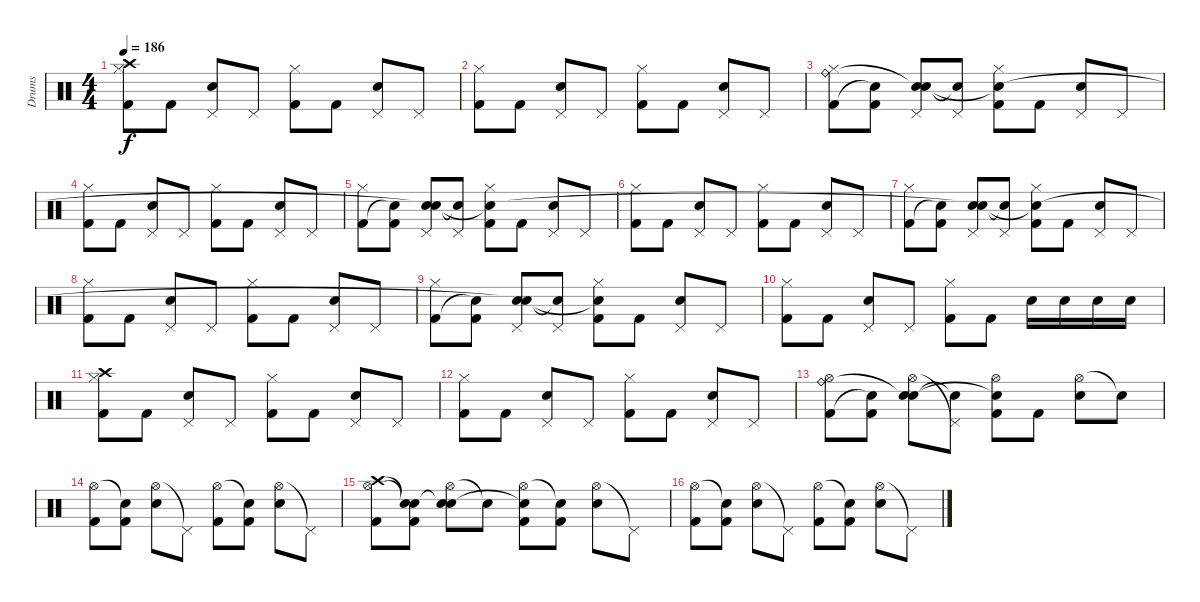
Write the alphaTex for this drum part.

\track ("Drums" "Drums") {instrument percussion}
\staff {score}
\articulation defaults
\ts (4 4)
\tempo 186
\clef neutral
\ks c
("Hi-Hat (closed)" "Kick (hit) 2" "Crash high (hit)").8{dy f} "Kick (hit) 2".8 ("Pedal Hi-Hat (hit)" "Electric Snare (hit)").8 "Pedal Hi-Hat (hit)".8 ("Hi-Hat (closed)" "Kick (hit) 2").8 "Kick (hit) 2".8 ("Pedal Hi-Hat (hit)" "Electric Snare (hit)").8 "Pedal Hi-Hat (hit)".8 |
("Hi-Hat (closed)" "Kick (hit) 2").8 "Kick (hit) 2".8 ("Pedal Hi-Hat (hit)" "Electric Snare (hit)").8 "Pedal Hi-Hat (hit)".8 ("Hi-Hat (closed)" "Kick (hit) 2").8 "Kick (hit) 2".8 ("Pedal Hi-Hat (hit)" "Electric Snare (hit)").8 "Pedal Hi-Hat (hit)".8 |
("Hi-Hat (closed)" "Kick (hit) 2" "Ride (bell)").8 ("Kick (hit) 2" "Snare (hit)"{t}).8 ("Pedal Hi-Hat (hit)" "Electric Snare (hit)" "Snare (hit)"{t}).8 ("Pedal Hi-Hat (hit)" "Snare (hit)"{t}).8 ("Hi-Hat (closed)" "Kick (hit) 2" "Snare (hit)"{t}).8 "Kick (hit) 2".8 ("Pedal Hi-Hat (hit)" "Electric Snare (hit)").8 "Pedal Hi-Hat (hit)".8 |
("Hi-Hat (closed)" "Kick (hit) 2").8 "Kick (hit) 2".8 ("Pedal Hi-Hat (hit)" "Electric Snare (hit)").8 "Pedal Hi-Hat (hit)".8 ("Hi-Hat (closed)" "Kick (hit) 2").8 "Kick (hit) 2".8 ("Pedal Hi-Hat (hit)" "Electric Snare (hit)").8 "Pedal Hi-Hat (hit)".8 |
("Hi-Hat (closed)" "Kick (hit) 2").8 ("Kick (hit) 2" "Snare (hit)"{t}).8 ("Pedal Hi-Hat (hit)" "Electric Snare (hit)" "Snare (hit)"{t}).8 ("Pedal Hi-Hat (hit)" "Snare (hit)"{t}).8 ("Hi-Hat (closed)" "Kick (hit) 2" "Snare (hit)"{t}).8 "Kick (hit) 2".8 ("Pedal Hi-Hat (hit)" "Electric Snare (hit)").8 "Pedal Hi-Hat (hit)".8 |
("Hi-Hat (closed)" "Kick (hit) 2").8 "Kick (hit) 2".8 ("Pedal Hi-Hat (hit)" "Electric Snare (hit)").8 "Pedal Hi-Hat (hit)".8 ("Hi-Hat (closed)" "Kick (hit) 2").8 "Kick (hit) 2".8 ("Pedal Hi-Hat (hit)" "Electric Snare (hit)").8 "Pedal Hi-Hat (hit)".8 |
("Hi-Hat (closed)" "Kick (hit) 2").8 ("Kick (hit) 2" "Snare (hit)"{t}).8 ("Pedal Hi-Hat (hit)" "Electric Snare (hit)" "Snare (hit)"{t}).8 ("Pedal Hi-Hat (hit)" "Snare (hit)"{t}).8 ("Hi-Hat (closed)" "Kick (hit) 2" "Snare (hit)"{t}).8 "Kick (hit) 2".8 ("Pedal Hi-Hat (hit)" "Electric Snare (hit)").8 "Pedal Hi-Hat (hit)".8 |
("Hi-Hat (closed)" "Kick (hit) 2").8 "Kick (hit) 2".8 ("Pedal Hi-Hat (hit)" "Electric Snare (hit)").8 "Pedal Hi-Hat (hit)".8 ("Hi-Hat (closed)" "Kick (hit) 2").8 "Kick (hit) 2".8 ("Pedal Hi-Hat (hit)" "Electric Snare (hit)").8 "Pedal Hi-Hat (hit)".8 |
("Hi-Hat (closed)" "Kick (hit) 2").8 ("Kick (hit) 2" "Snare (hit)"{t}).8 ("Pedal Hi-Hat (hit)" "Electric Snare (hit)" "Snare (hit)"{t}).8 ("Pedal Hi-Hat (hit)" "Snare (hit)"{t}).8 ("Hi-Hat (closed)" "Kick (hit) 2" "Snare (hit)"{t}).8 "Kick (hit) 2".8 ("Pedal Hi-Hat (hit)" "Electric Snare (hit)").8 "Pedal Hi-Hat (hit)".8 |
("Hi-Hat (closed)" "Kick (hit) 2").8 "Kick (hit) 2".8 ("Pedal Hi-Hat (hit)" "Electric Snare (hit)").8 "Pedal Hi-Hat (hit)".8 ("Hi-Hat (closed)" "Kick (hit) 2").8 "Kick (hit) 2".8 "Electric Snare (hit)".16 "Electric Snare (hit)".16 "Electric Snare (hit)".16 "Electric Snare (hit)".16 |
("Hi-Hat (closed)" "Kick (hit) 2" "Crash high (hit)").8 "Kick (hit) 2".8 ("Pedal Hi-Hat (hit)" "Electric Snare (hit)").8 "Pedal Hi-Hat (hit)".8 ("Hi-Hat (closed)" "Kick (hit) 2").8 "Kick (hit) 2".8 ("Pedal Hi-Hat (hit)" "Electric Snare (hit)").8 "Pedal Hi-Hat (hit)".8 |
("Hi-Hat (closed)" "Kick (hit) 2").8 "Kick (hit) 2".8 ("Pedal Hi-Hat (hit)" "Electric Snare (hit)").8 "Pedal Hi-Hat (hit)".8 ("Hi-Hat (closed)" "Kick (hit) 2").8 "Kick (hit) 2".8 ("Pedal Hi-Hat (hit)" "Electric Snare (hit)").8 "Pedal Hi-Hat (hit)".8 |
("Hi-Hat (open)" "Kick (hit) 2" "Ride (bell)").8 ("Kick (hit) 2" "Snare (hit)"{t}).8 ("Hi-Hat (open)" "Electric Snare (hit)" "Snare (hit)"{t}).8 ("Pedal Hi-Hat (hit)"{t} "Snare (hit)"{t}).8 ("Hi-Hat (open)" "Kick (hit) 2" "Snare (hit)"{t}).8 "Kick (hit) 2".8 ("Hi-Hat (open)" "Electric Snare (hit)").8 "Snare (hit)"{t}.8 |
("Hi-Hat (open)" "Kick (hit) 2").8 ("Snare (hit)"{t} "Kick (hit) 2").8 ("Hi-Hat (open)" "Electric Snare (hit)").8 "Pedal Hi-Hat (hit)"{t}.8 ("Hi-Hat (open)" "Kick (hit) 2").8 ("Snare (hit)"{t} "Kick (hit) 2").8 ("Hi-Hat (open)" "Electric Snare (hit)").8 "Pedal Hi-Hat (hit)"{t}.8 |
("Hi-Hat (open)" "Kick (hit) 2" "Crash high (hit)").8 ("Snare (hit)"{t} "Kick (hit) 2" "Snare (hit)"{t}).8 ("Hi-Hat (open)" "Electric Snare (hit)" "Snare (hit)"{t}).8 "Snare (hit)"{t}.8 ("Hi-Hat (open)" "Kick (hit) 2" "Snare (hit)"{t}).8 ("Snare (hit)"{t} "Kick (hit) 2").8 ("Hi-Hat (open)" "Electric Snare (hit)").8 "Pedal Hi-Hat (hit)"{t}.8 |
("Hi-Hat (open)" "Kick (hit) 2").8 ("Snare (hit)"{t} "Kick (hit) 2").8 ("Hi-Hat (open)" "Electric Snare (hit)").8 "Pedal Hi-Hat (hit)"{t}.8 ("Hi-Hat (open)" "Kick (hit) 2").8 ("Snare (hit)"{t} "Kick (hit) 2").8 ("Hi-Hat (open)" "Electric Snare (hit)").8 "Pedal Hi-Hat (hit)"{t}.8
